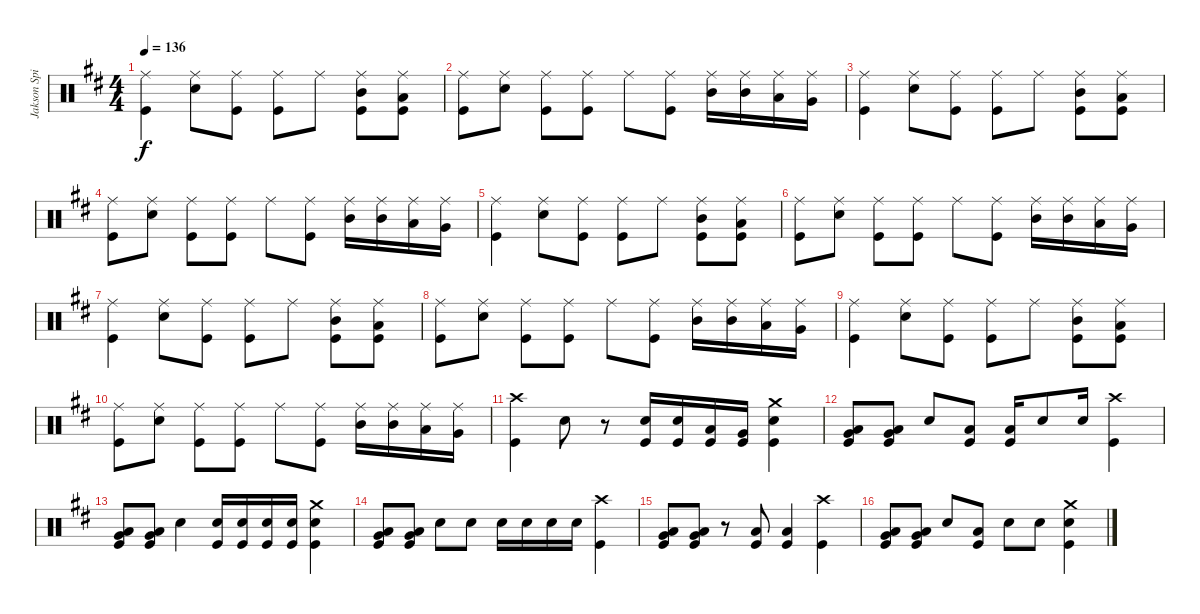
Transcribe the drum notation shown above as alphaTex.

\track ("Jakson Spires Drums" "Jakson Spi") {instrument percussion}
\staff {score}
\articulation defaults
\ts (4 4)
\tempo 136
\clef neutral
\ks d
("Ride (middle)" "Kick (hit)").4{dy f} ("Ride (middle)" "Snare (hit) 2").8 ("Ride (middle)" "Kick (hit)").8 ("Ride (middle)" "Kick (hit)").8 "Ride (middle)".8 ("Ride (middle)" "Mid Tom (hit)" "Kick (hit)").8 ("Ride (middle)" "Low Tom (hit)" "Kick (hit)").8 |
("Ride (middle)" "Kick (hit)").8 ("Ride (middle)" "Snare (hit) 2").8 ("Ride (middle)" "Kick (hit)").8 ("Ride (middle)" "Kick (hit)").8 "Ride (middle)".8 ("Ride (middle)" "Kick (hit)").8 ("Ride (middle)" "Mid Tom (hit)").16 ("Ride (middle)" "Mid Tom (hit)").16 ("Ride (middle)" "Low Tom (hit)").16 ("Ride (middle)" "Very Low Tom (hit)").16 |
("Ride (middle)" "Kick (hit)").4 ("Ride (middle)" "Snare (hit) 2").8 ("Ride (middle)" "Kick (hit)").8 ("Ride (middle)" "Kick (hit)").8 "Ride (middle)".8 ("Ride (middle)" "Mid Tom (hit)" "Kick (hit)").8 ("Ride (middle)" "Low Tom (hit)" "Kick (hit)").8 |
("Ride (middle)" "Kick (hit)").8 ("Ride (middle)" "Snare (hit) 2").8 ("Ride (middle)" "Kick (hit)").8 ("Ride (middle)" "Kick (hit)").8 "Ride (middle)".8 ("Ride (middle)" "Kick (hit)").8 ("Ride (middle)" "Mid Tom (hit)").16 ("Ride (middle)" "Mid Tom (hit)").16 ("Ride (middle)" "Low Tom (hit)").16 ("Ride (middle)" "Very Low Tom (hit)").16 |
("Ride (middle)" "Kick (hit)").4 ("Ride (middle)" "Snare (hit) 2").8 ("Ride (middle)" "Kick (hit)").8 ("Ride (middle)" "Kick (hit)").8 "Ride (middle)".8 ("Ride (middle)" "Mid Tom (hit)" "Kick (hit)").8 ("Ride (middle)" "Low Tom (hit)" "Kick (hit)").8 |
("Ride (middle)" "Kick (hit)").8 ("Ride (middle)" "Snare (hit) 2").8 ("Ride (middle)" "Kick (hit)").8 ("Ride (middle)" "Kick (hit)").8 "Ride (middle)".8 ("Ride (middle)" "Kick (hit)").8 ("Ride (middle)" "Mid Tom (hit)").16 ("Ride (middle)" "Mid Tom (hit)").16 ("Ride (middle)" "Low Tom (hit)").16 ("Ride (middle)" "Very Low Tom (hit)").16 |
("Ride (middle)" "Kick (hit)").4 ("Ride (middle)" "Snare (hit) 2").8 ("Ride (middle)" "Kick (hit)").8 ("Ride (middle)" "Kick (hit)").8 "Ride (middle)".8 ("Ride (middle)" "Mid Tom (hit)" "Kick (hit)").8 ("Ride (middle)" "Low Tom (hit)" "Kick (hit)").8 |
("Ride (middle)" "Kick (hit)").8 ("Ride (middle)" "Snare (hit) 2").8 ("Ride (middle)" "Kick (hit)").8 ("Ride (middle)" "Kick (hit)").8 "Ride (middle)".8 ("Ride (middle)" "Kick (hit)").8 ("Ride (middle)" "Mid Tom (hit)").16 ("Ride (middle)" "Mid Tom (hit)").16 ("Ride (middle)" "Low Tom (hit)").16 ("Ride (middle)" "Very Low Tom (hit)").16 |
("Ride (middle)" "Kick (hit)").4 ("Ride (middle)" "Snare (hit) 2").8 ("Ride (middle)" "Kick (hit)").8 ("Ride (middle)" "Kick (hit)").8 "Ride (middle)".8 ("Ride (middle)" "Mid Tom (hit)" "Kick (hit)").8 ("Ride (middle)" "Low Tom (hit)" "Kick (hit)").8 |
("Ride (middle)" "Kick (hit)").8 ("Ride (middle)" "Snare (hit) 2").8 ("Ride (middle)" "Kick (hit)").8 ("Ride (middle)" "Kick (hit)").8 "Ride (middle)".8 ("Ride (middle)" "Kick (hit)").8 ("Ride (middle)" "Mid Tom (hit)").16 ("Ride (middle)" "Mid Tom (hit)").16 ("Ride (middle)" "Low Tom (hit)").16 ("Ride (middle)" "Very Low Tom (hit)").16 |
("Crash high (hit)" "Kick (hit)").4 "Snare (hit) 2".8 r.8 ("Snare (hit) 2" "Kick (hit)").16 ("Snare (hit) 2" "Kick (hit)").16 ("Low Tom (hit)" "Kick (hit)").16 ("Very Low Tom (hit)" "Kick (hit)").16 ("Crash medium (hit)" "Snare (hit) 2" "Kick (hit)").4 |
("Very Low Tom (hit)" "Low Floor Tom (hit)" "Kick (hit)").8 ("Very Low Tom (hit)" "Low Floor Tom (hit)" "Kick (hit)").8 "Snare (hit) 2".8 ("Low Tom (hit)" "Kick (hit)").8 ("Low Tom (hit)" "Kick (hit)").16 "Snare (hit) 2".8 "Snare (hit) 2".16 ("Crash high (hit)" "Kick (hit)").4 |
("Very Low Tom (hit)" "Low Floor Tom (hit)" "Kick (hit)").8 ("Very Low Tom (hit)" "Low Floor Tom (hit)" "Kick (hit)").8 "Snare (hit) 2".4 ("Snare (hit) 2" "Kick (hit)").16 ("Snare (hit) 2" "Kick (hit)").16 ("Snare (hit) 2" "Kick (hit)").16 ("Snare (hit) 2" "Kick (hit)").16 ("Crash medium (hit)" "Snare (hit) 2" "Kick (hit)").4 |
("Very Low Tom (hit)" "Low Floor Tom (hit)" "Kick (hit)").8 ("Very Low Tom (hit)" "Low Floor Tom (hit)" "Kick (hit)").8 "Snare (hit) 2".8 "Snare (hit) 2".8 "Snare (hit) 2".16 "Snare (hit) 2".16 "Snare (hit) 2".16 "Snare (hit) 2".16 ("Crash high (hit)" "Kick (hit)").4 |
("Very Low Tom (hit)" "Low Floor Tom (hit)" "Kick (hit)").8 ("Very Low Tom (hit)" "Low Floor Tom (hit)" "Kick (hit)").8 r.8 ("Low Tom (hit)" "Kick (hit)").8 ("Low Tom (hit)" "Kick (hit)").4 ("Crash high (hit)" "Kick (hit)").4 |
("Very Low Tom (hit)" "Low Floor Tom (hit)" "Kick (hit)").8 ("Very Low Tom (hit)" "Low Floor Tom (hit)" "Kick (hit)").8 "Snare (hit) 2".8 ("Low Tom (hit)" "Kick (hit)").8 "Snare (hit) 2".8 "Snare (hit) 2".8 ("Crash medium (hit)" "Snare (hit) 2" "Kick (hit)").4
